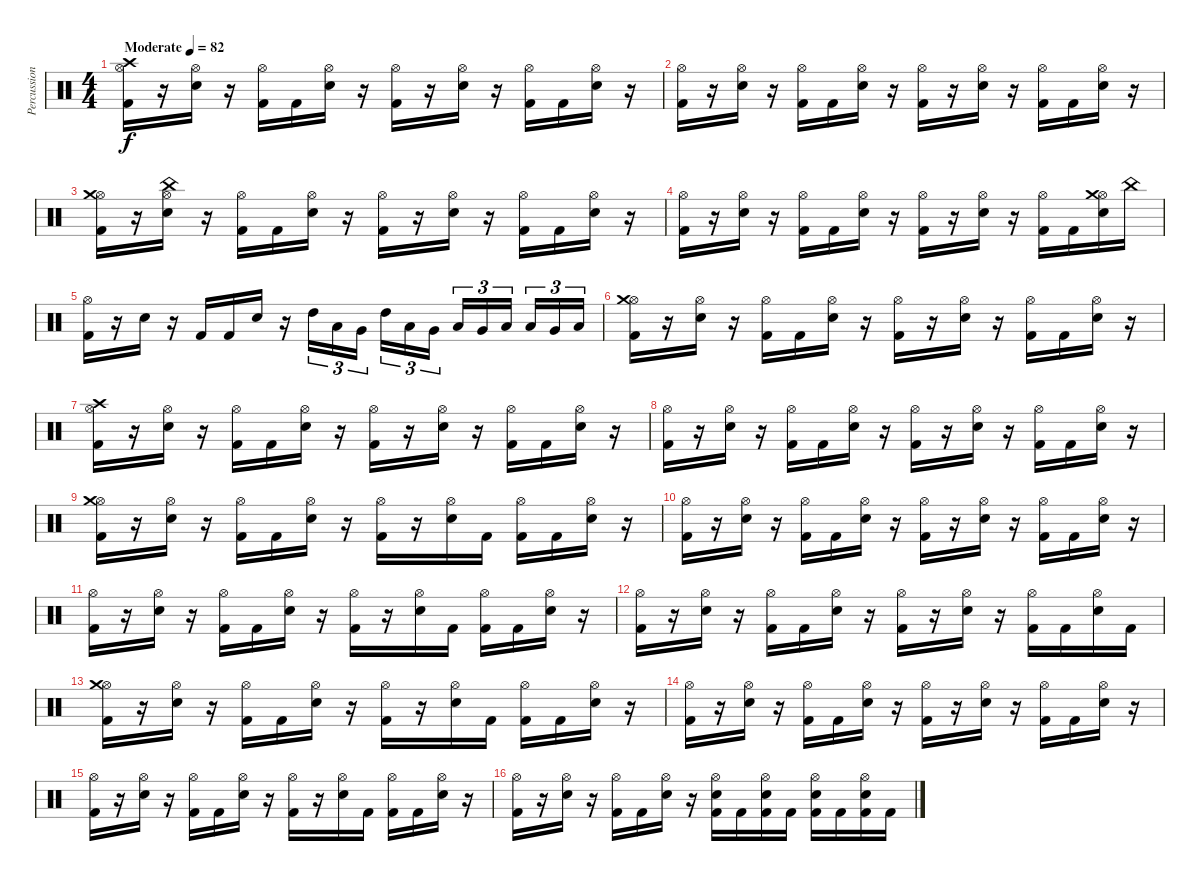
\track ("Percussion" "Percussion") {instrument percussion}
\staff {score}
\articulation defaults
\ts (4 4)
\tempo (82 "Moderate")
\clef neutral
\ks c
("Hi-Hat (open)" "Crash high (hit)" "Kick (hit) 2").16{dy f} r.16 ("Hi-Hat (open)" "Snare (hit) 2").16 r.16 ("Hi-Hat (open)" "Kick (hit) 2").16 "Kick (hit) 2".16 ("Hi-Hat (open)" "Snare (hit) 2").16 r.16 ("Hi-Hat (open)" "Kick (hit) 2").16 r.16 ("Hi-Hat (open)" "Snare (hit) 2").16 r.16 ("Hi-Hat (open)" "Kick (hit) 2").16 "Kick (hit) 2".16 ("Hi-Hat (open)" "Snare (hit) 2").16 r.16 |
("Hi-Hat (open)" "Kick (hit) 2").16 r.16 ("Hi-Hat (open)" "Snare (hit) 2").16 r.16 ("Hi-Hat (open)" "Kick (hit) 2").16 "Kick (hit) 2".16 ("Hi-Hat (open)" "Snare (hit) 2").16 r.16 ("Hi-Hat (open)" "Kick (hit) 2").16 r.16 ("Hi-Hat (open)" "Snare (hit) 2").16 r.16 ("Hi-Hat (open)" "Kick (hit) 2").16 "Kick (hit) 2".16 ("Hi-Hat (open)" "Snare (hit) 2").16 r.16 |
("Hi-Hat (open)" "Crash medium (hit)" "Kick (hit) 2").16 r.16 ("Hi-Hat (open)" "China (hit)" "Snare (hit) 2").16 r.16 ("Hi-Hat (open)" "Kick (hit) 2").16 "Kick (hit) 2".16 ("Hi-Hat (open)" "Snare (hit) 2").16 r.16 ("Hi-Hat (open)" "Kick (hit) 2").16 r.16 ("Hi-Hat (open)" "Snare (hit) 2").16 r.16 ("Hi-Hat (open)" "Kick (hit) 2").16 "Kick (hit) 2".16 ("Hi-Hat (open)" "Snare (hit) 2").16 r.16 |
("Hi-Hat (open)" "Kick (hit) 2").16 r.16 ("Hi-Hat (open)" "Snare (hit) 2").16 r.16 ("Hi-Hat (open)" "Kick (hit) 2").16 "Kick (hit) 2".16 ("Hi-Hat (open)" "Snare (hit) 2").16 r.16 ("Hi-Hat (open)" "Kick (hit) 2").16 r.16 ("Hi-Hat (open)" "Snare (hit) 2").16 r.16 ("Hi-Hat (open)" "Kick (hit) 2").16 "Kick (hit) 2".16 ("Hi-Hat (open)" "Crash medium (hit)" "Snare (hit) 2").16 "China (hit)".16 |
("Hi-Hat (open)" "Kick (hit) 2").16 r.16 "Snare (hit) 2".16 r.16 "Kick (hit) 2".16 "Kick (hit) 2".16 "Snare (hit) 2".16 r.16 "High Tom (hit)".16{tu (3 2)} "Low Tom (hit)".16{tu (3 2)} "Very Low Tom (hit)".16{tu (3 2) beam splitsecondary} "High Tom (hit)".16{tu (3 2)} "Low Tom (hit)".16{tu (3 2)} "Very Low Tom (hit)".16{tu (3 2)} "Low Tom (hit)".16{tu (3 2)} "Very Low Tom (hit)".16{tu (3 2)} "Low Floor Tom (hit)".16{tu (3 2) beam splitsecondary} "Low Tom (hit)".16{tu (3 2)} "Very Low Tom (hit)".16{tu (3 2)} "Low Floor Tom (hit)".16{tu (3 2)} |
("Hi-Hat (open)" "Crash medium (hit)" "Kick (hit) 2").16 r.16 ("Hi-Hat (open)" "Snare (hit) 2").16 r.16 ("Hi-Hat (open)" "Kick (hit) 2").16 "Kick (hit) 2".16 ("Hi-Hat (open)" "Snare (hit) 2").16 r.16 ("Hi-Hat (open)" "Kick (hit) 2").16 r.16 ("Hi-Hat (open)" "Snare (hit) 2").16 r.16 ("Hi-Hat (open)" "Kick (hit) 2").16 "Kick (hit) 2".16 ("Hi-Hat (open)" "Snare (hit) 2").16 r.16 |
("Hi-Hat (open)" "Crash high (hit)" "Kick (hit) 2").16 r.16 ("Hi-Hat (open)" "Snare (hit) 2").16 r.16 ("Hi-Hat (open)" "Kick (hit) 2").16 "Kick (hit) 2".16 ("Hi-Hat (open)" "Snare (hit) 2").16 r.16 ("Hi-Hat (open)" "Kick (hit) 2").16 r.16 ("Hi-Hat (open)" "Snare (hit) 2").16 r.16 ("Hi-Hat (open)" "Kick (hit) 2").16 "Kick (hit) 2".16 ("Hi-Hat (open)" "Snare (hit) 2").16 r.16 |
("Hi-Hat (open)" "Kick (hit) 2").16 r.16 ("Hi-Hat (open)" "Snare (hit) 2").16 r.16 ("Hi-Hat (open)" "Kick (hit) 2").16 "Kick (hit) 2".16 ("Hi-Hat (open)" "Snare (hit) 2").16 r.16 ("Hi-Hat (open)" "Kick (hit) 2").16 r.16 ("Hi-Hat (open)" "Snare (hit) 2").16 r.16 ("Hi-Hat (open)" "Kick (hit) 2").16 "Kick (hit) 2".16 ("Hi-Hat (open)" "Snare (hit) 2").16 r.16 |
("Hi-Hat (open)" "Crash medium (hit)" "Kick (hit) 2").16 r.16 ("Hi-Hat (open)" "Snare (hit) 2").16 r.16 ("Hi-Hat (open)" "Kick (hit) 2").16 "Kick (hit) 2".16 ("Hi-Hat (open)" "Snare (hit) 2").16 r.16 ("Hi-Hat (open)" "Kick (hit) 2").16 r.16 ("Hi-Hat (open)" "Snare (hit) 2").16 "Kick (hit) 2".16 ("Hi-Hat (open)" "Kick (hit) 2").16 "Kick (hit) 2".16 ("Hi-Hat (open)" "Snare (hit) 2").16 r.16 |
("Hi-Hat (open)" "Kick (hit) 2").16 r.16 ("Hi-Hat (open)" "Snare (hit) 2").16 r.16 ("Hi-Hat (open)" "Kick (hit) 2").16 "Kick (hit) 2".16 ("Hi-Hat (open)" "Snare (hit) 2").16 r.16 ("Hi-Hat (open)" "Kick (hit) 2").16 r.16 ("Hi-Hat (open)" "Snare (hit) 2").16 r.16 ("Hi-Hat (open)" "Kick (hit) 2").16 "Kick (hit) 2".16 ("Hi-Hat (open)" "Snare (hit) 2").16 r.16 |
("Hi-Hat (open)" "Kick (hit) 2").16 r.16 ("Hi-Hat (open)" "Snare (hit) 2").16 r.16 ("Hi-Hat (open)" "Kick (hit) 2").16 "Kick (hit) 2".16 ("Hi-Hat (open)" "Snare (hit) 2").16 r.16 ("Hi-Hat (open)" "Kick (hit) 2").16 r.16 ("Hi-Hat (open)" "Snare (hit) 2").16 "Kick (hit) 2".16 ("Hi-Hat (open)" "Kick (hit) 2").16 "Kick (hit) 2".16 ("Hi-Hat (open)" "Snare (hit) 2").16 r.16 |
("Hi-Hat (open)" "Kick (hit) 2").16 r.16 ("Hi-Hat (open)" "Snare (hit) 2").16 r.16 ("Hi-Hat (open)" "Kick (hit) 2").16 "Kick (hit) 2".16 ("Hi-Hat (open)" "Snare (hit) 2").16 r.16 ("Hi-Hat (open)" "Kick (hit) 2").16 r.16 ("Hi-Hat (open)" "Snare (hit) 2").16 r.16 ("Hi-Hat (open)" "Kick (hit) 2").16 "Kick (hit) 2".16 ("Hi-Hat (open)" "Snare (hit) 2").16 "Kick (hit) 2".16 |
("Hi-Hat (open)" "Crash medium (hit)" "Kick (hit) 2").16 r.16 ("Hi-Hat (open)" "Snare (hit) 2").16 r.16 ("Hi-Hat (open)" "Kick (hit) 2").16 "Kick (hit) 2".16 ("Hi-Hat (open)" "Snare (hit) 2").16 r.16 ("Hi-Hat (open)" "Kick (hit) 2").16 r.16 ("Hi-Hat (open)" "Snare (hit) 2").16 "Kick (hit) 2".16 ("Hi-Hat (open)" "Kick (hit) 2").16 "Kick (hit) 2".16 ("Hi-Hat (open)" "Snare (hit) 2").16 r.16 |
("Hi-Hat (open)" "Kick (hit) 2").16 r.16 ("Hi-Hat (open)" "Snare (hit) 2").16 r.16 ("Hi-Hat (open)" "Kick (hit) 2").16 "Kick (hit) 2".16 ("Hi-Hat (open)" "Snare (hit) 2").16 r.16 ("Hi-Hat (open)" "Kick (hit) 2").16 r.16 ("Hi-Hat (open)" "Snare (hit) 2").16 r.16 ("Hi-Hat (open)" "Kick (hit) 2").16 "Kick (hit) 2".16 ("Hi-Hat (open)" "Snare (hit) 2").16 r.16 |
("Hi-Hat (open)" "Kick (hit) 2").16 r.16 ("Hi-Hat (open)" "Snare (hit) 2").16 r.16 ("Hi-Hat (open)" "Kick (hit) 2").16 "Kick (hit) 2".16 ("Hi-Hat (open)" "Snare (hit) 2").16 r.16 ("Hi-Hat (open)" "Kick (hit) 2").16 r.16 ("Hi-Hat (open)" "Snare (hit) 2").16 "Kick (hit) 2".16 ("Hi-Hat (open)" "Kick (hit) 2").16 "Kick (hit) 2".16 ("Hi-Hat (open)" "Snare (hit) 2").16 r.16 |
("Hi-Hat (open)" "Kick (hit) 2").16 r.16 ("Hi-Hat (open)" "Snare (hit) 2").16 r.16 ("Hi-Hat (open)" "Kick (hit) 2").16 "Kick (hit) 2".16 ("Hi-Hat (open)" "Snare (hit) 2").16 r.16 ("Hi-Hat (open)" "Snare (hit) 2" "Kick (hit) 2").16 "Kick (hit) 2".16 ("Hi-Hat (open)" "Snare (hit) 2" "Kick (hit) 2").16 "Kick (hit) 2".16 ("Hi-Hat (open)" "Snare (hit) 2" "Kick (hit) 2").16 "Kick (hit) 2".16 ("Hi-Hat (open)" "Snare (hit) 2" "Kick (hit) 2").16 "Kick (hit) 2".16
